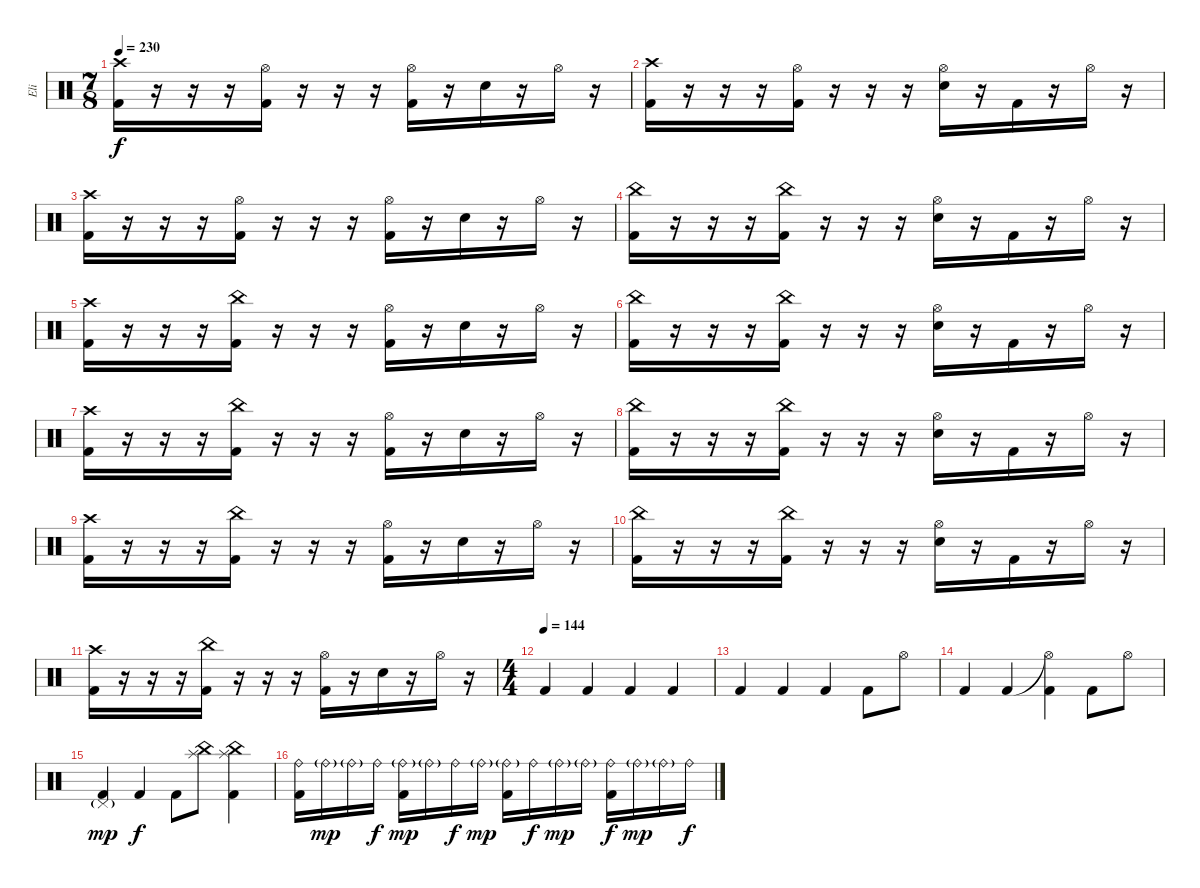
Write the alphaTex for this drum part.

\track ("Eli" "Eli") {instrument percussion}
\staff {score}
\articulation defaults
\ts (7 8)
\tempo 230
\clef neutral
\ks c
("Crash high (hit)" "Kick (hit) 2").16{dy f} r.16 r.16 r.16 ("Hi-Hat (open)" "Kick (hit) 2").16 r.16 r.16 r.16 ("Hi-Hat (open)" "Kick (hit) 2").16 r.16 "Snare (hit) 2".16 r.16 "Hi-Hat (open)".16 r.16 |
("Crash high (hit)" "Kick (hit) 2").16 r.16 r.16 r.16 ("Hi-Hat (open)" "Kick (hit) 2").16 r.16 r.16 r.16 ("Hi-Hat (open)" "Snare (hit) 2").16 r.16 "Kick (hit) 2".16 r.16 "Hi-Hat (open)".16 r.16 |
("Crash high (hit)" "Kick (hit) 2").16 r.16 r.16 r.16 ("Hi-Hat (open)" "Kick (hit) 2").16 r.16 r.16 r.16 ("Hi-Hat (open)" "Kick (hit) 2").16 r.16 "Snare (hit) 2".16 r.16 "Hi-Hat (open)".16 r.16 |
("China (hit)" "Kick (hit) 2").16 r.16 r.16 r.16 ("China (hit)" "Kick (hit) 2").16 r.16 r.16 r.16 ("Hi-Hat (open)" "Snare (hit) 2").16 r.16 "Kick (hit) 2".16 r.16 "Hi-Hat (open)".16 r.16 |
("Crash high (hit)" "Kick (hit) 2").16 r.16 r.16 r.16 ("China (hit)" "Kick (hit) 2").16 r.16 r.16 r.16 ("Hi-Hat (open)" "Kick (hit) 2").16 r.16 "Snare (hit) 2".16 r.16 "Hi-Hat (open)".16 r.16 |
("China (hit)" "Kick (hit) 2").16 r.16 r.16 r.16 ("China (hit)" "Kick (hit) 2").16 r.16 r.16 r.16 ("Hi-Hat (open)" "Snare (hit) 2").16 r.16 "Kick (hit) 2".16 r.16 "Hi-Hat (open)".16 r.16 |
("Crash high (hit)" "Kick (hit) 2").16 r.16 r.16 r.16 ("China (hit)" "Kick (hit) 2").16 r.16 r.16 r.16 ("Hi-Hat (open)" "Kick (hit) 2").16 r.16 "Snare (hit) 2".16 r.16 "Hi-Hat (open)".16 r.16 |
("China (hit)" "Kick (hit) 2").16 r.16 r.16 r.16 ("China (hit)" "Kick (hit) 2").16 r.16 r.16 r.16 ("Hi-Hat (open)" "Snare (hit) 2").16 r.16 "Kick (hit) 2".16 r.16 "Hi-Hat (open)".16 r.16 |
("Crash high (hit)" "Kick (hit) 2").16 r.16 r.16 r.16 ("China (hit)" "Kick (hit) 2").16 r.16 r.16 r.16 ("Hi-Hat (open)" "Kick (hit) 2").16 r.16 "Snare (hit) 2".16 r.16 "Hi-Hat (open)".16 r.16 |
("China (hit)" "Kick (hit) 2").16 r.16 r.16 r.16 ("China (hit)" "Kick (hit) 2").16 r.16 r.16 r.16 ("Hi-Hat (open)" "Snare (hit) 2").16 r.16 "Kick (hit) 2".16 r.16 "Hi-Hat (open)".16 r.16 |
("Crash high (hit)" "Kick (hit) 2").16 r.16 r.16 r.16 ("China (hit)" "Kick (hit) 2").16 r.16 r.16 r.16 ("Hi-Hat (open)" "Kick (hit) 2").16 r.16 "Snare (hit) 2".16 r.16 "Hi-Hat (open)".16 r.16 |
\ts (4 4)
\tempo (144)
"Kick (hit) 2".4 "Kick (hit) 2".4 "Kick (hit) 2".4 "Kick (hit) 2".4 |
"Kick (hit) 2".4 "Kick (hit) 2".4 "Kick (hit) 2".4 "Kick (hit) 2".8 "Hi-Hat (open)".8 |
"Kick (hit) 2".4 "Kick (hit) 2".4 ("Hi-Hat (open)"{t} "Kick (hit) 2").4 "Kick (hit) 2".8 "Hi-Hat (open)".8 |
("Pedal Hi-Hat (hit)"{g} "Kick (hit) 2").4{dy mp} "Kick (hit) 2".4{dy f} "Kick (hit) 2".8 ("China (hit)" "Splash (hit)").8 ("China (hit)" "Splash (hit)" "Kick (hit) 2").4 |
("Ride (bell)" "Kick (hit) 2").16 "Ride (bell)"{g}.16{dy mp} "Ride (bell)"{g}.16 "Ride (bell)".16{dy f} ("Ride (bell)"{g} "Kick (hit) 2").16{dy mp} "Ride (bell)"{g}.16 "Ride (bell)".16{dy f} "Ride (bell)"{g}.16{dy mp} ("Ride (bell)"{g} "Kick (hit) 2").16 "Ride (bell)".16{dy f} "Ride (bell)"{g}.16{dy mp} "Ride (bell)"{g}.16 ("Ride (bell)" "Kick (hit) 2").16{dy f} "Ride (bell)"{g}.16{dy mp} "Ride (bell)"{g}.16 "Ride (bell)".16{dy f}
